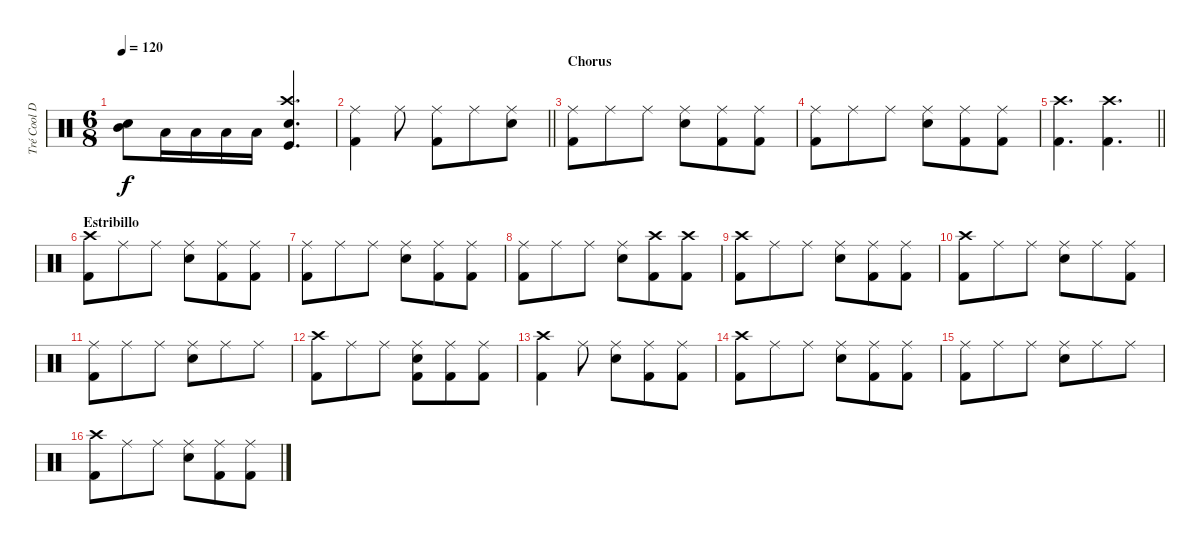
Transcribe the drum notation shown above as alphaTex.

\track ("Tré Cool Drums" "Tré Cool D") {instrument percussion}
\staff {score}
\articulation defaults
\ts (6 8)
\tempo 120
\clef neutral
\ks c
("Snare (hit) 2" "Mid Tom (hit)").8{dy f} "Low Tom (hit)".16 "Low Tom (hit)".16 "Low Tom (hit)".16 "Low Tom (hit)".16 ("Crash high (hit)" "Snare (hit) 2" "Kick (hit)").4{d} |
\barLineRight lightlight
("Ride (middle)" "Kick (hit) 2").4 "Ride (middle)".8 ("Ride (middle)" "Kick (hit) 2").8 "Ride (middle)".8 ("Ride (middle)" "Snare (hit) 2").8 |
\section ("" "Chorus")
("Ride (middle)" "Kick (hit) 2").8 "Ride (middle)".8 "Ride (middle)".8 ("Ride (middle)" "Snare (hit) 2").8 ("Ride (middle)" "Kick (hit) 2").8 ("Ride (middle)" "Kick (hit) 2").8 |
("Ride (middle)" "Kick (hit) 2").8 "Ride (middle)".8 "Ride (middle)".8 ("Ride (middle)" "Snare (hit) 2").8 ("Ride (middle)" "Kick (hit) 2").8 ("Ride (middle)" "Kick (hit) 2").8 |
\barLineRight lightlight
("Crash high (hit)" "Kick (hit) 2").4{d} ("Crash high (hit)" "Kick (hit) 2").4{d} |
\section ("" "Estribillo")
("Crash high (hit)" "Kick (hit) 2").8 "Ride (middle)".8 "Ride (middle)".8 ("Ride (middle)" "Snare (hit) 2").8 ("Ride (middle)" "Kick (hit) 2").8 ("Ride (middle)" "Kick (hit) 2").8 |
("Ride (middle)" "Kick (hit) 2").8 "Ride (middle)".8 "Ride (middle)".8 ("Ride (middle)" "Snare (hit) 2").8 ("Ride (middle)" "Kick (hit) 2").8 ("Ride (middle)" "Kick (hit) 2").8 |
("Ride (middle)" "Kick (hit) 2").8 "Ride (middle)".8 "Ride (middle)".8 ("Ride (middle)" "Snare (hit) 2").8 ("Crash high (hit)" "Kick (hit) 2").8 ("Crash high (hit)" "Kick (hit) 2").8 |
("Crash high (hit)" "Kick (hit) 2").8 "Ride (middle)".8 "Ride (middle)".8 ("Ride (middle)" "Snare (hit) 2").8 ("Ride (middle)" "Kick (hit) 2").8 ("Ride (middle)" "Kick (hit) 2").8 |
("Crash high (hit)" "Kick (hit) 2").8 "Ride (middle)".8 "Ride (middle)".8 ("Ride (middle)" "Snare (hit) 2").8 "Ride (middle)".8 ("Ride (middle)" "Kick (hit) 2").8 |
("Ride (middle)" "Kick (hit) 2").8 "Ride (middle)".8 "Ride (middle)".8 ("Ride (middle)" "Snare (hit) 2").8 "Ride (middle)".8 "Ride (middle)".8 |
("Crash high (hit)" "Kick (hit) 2").8 "Ride (middle)".8 "Ride (middle)".8 ("Ride (middle)" "Snare (hit) 2" "Kick (hit) 2").8 ("Ride (middle)" "Kick (hit) 2").8 ("Ride (middle)" "Kick (hit) 2").8 |
("Crash high (hit)" "Kick (hit) 2").4 "Ride (middle)".8 ("Ride (middle)" "Snare (hit) 2").8 ("Ride (middle)" "Kick (hit) 2").8 ("Ride (middle)" "Kick (hit) 2").8 |
("Crash high (hit)" "Kick (hit) 2").8 "Ride (middle)".8 "Ride (middle)".8 ("Ride (middle)" "Snare (hit) 2").8 ("Ride (middle)" "Kick (hit) 2").8 ("Ride (middle)" "Kick (hit) 2").8 |
("Ride (middle)" "Kick (hit) 2").8 "Ride (middle)".8 "Ride (middle)".8 ("Ride (middle)" "Snare (hit) 2").8 "Ride (middle)".8 "Ride (middle)".8 |
("Crash high (hit)" "Kick (hit) 2").8 "Ride (middle)".8 "Ride (middle)".8 ("Ride (middle)" "Snare (hit) 2").8 ("Ride (middle)" "Kick (hit) 2").8 ("Ride (middle)" "Kick (hit) 2").8
